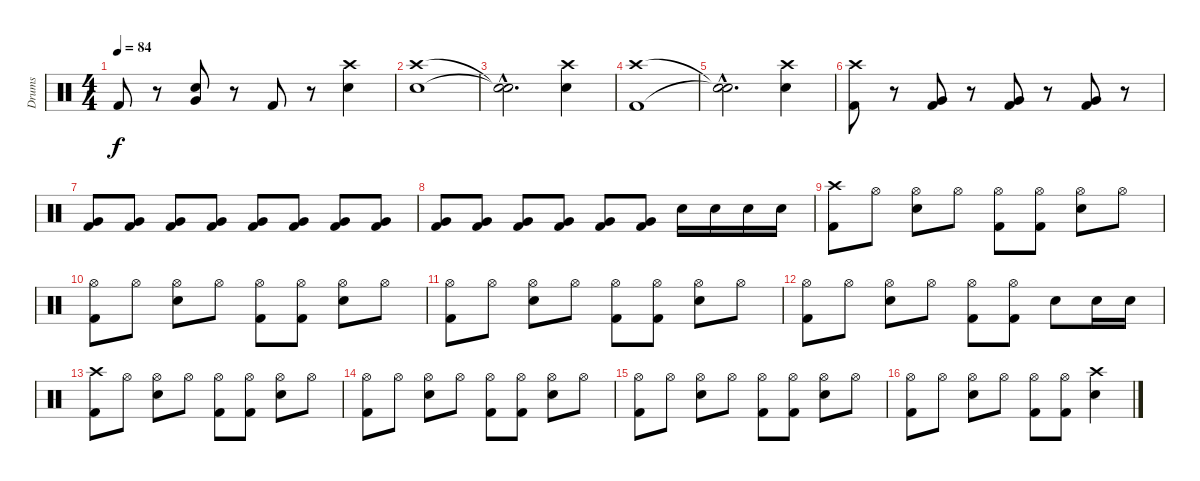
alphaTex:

\track ("Drums" "Drums") {instrument percussion}
\staff {score}
\articulation defaults
\ts (4 4)
\tempo 84
\clef neutral
\ks c "Kick (hit) 2".8{dy f}
r.8 ("Very Low Tom (hit)" "Snare (hit) 2").8 r.8 "Kick (hit) 2".8 r.8 ("Crash high (hit)" "Snare (hit) 2").4 |
("Crash high (hit)" "Snare (hit) 2").1 |
("Snare (hit)"{hac t} "Snare (hit)"{hac t}).2{d} ("Crash high (hit)" "Snare (hit) 2").4 |
("Crash high (hit)" "Kick (hit) 2").1 |
("Snare (hit)"{hac t} "Snare (hit)"{hac t}).2{d} ("Crash high (hit)" "Snare (hit) 2").4 |
("Crash high (hit)" "Kick (hit) 2").8 r.8 ("Very Low Tom (hit)" "Kick (hit) 2").8 r.8 ("Very Low Tom (hit)" "Kick (hit) 2").8 r.8 ("Very Low Tom (hit)" "Kick (hit) 2").8 r.8 |
("Very Low Tom (hit)" "Kick (hit) 2").8 ("Very Low Tom (hit)" "Kick (hit) 2").8 ("Very Low Tom (hit)" "Kick (hit) 2").8 ("Very Low Tom (hit)" "Kick (hit) 2").8 ("Very Low Tom (hit)" "Kick (hit) 2").8 ("Very Low Tom (hit)" "Kick (hit) 2").8 ("Very Low Tom (hit)" "Kick (hit) 2").8 ("Very Low Tom (hit)" "Kick (hit) 2").8 |
("Very Low Tom (hit)" "Kick (hit) 2").8 ("Very Low Tom (hit)" "Kick (hit) 2").8 ("Very Low Tom (hit)" "Kick (hit) 2").8 ("Very Low Tom (hit)" "Kick (hit) 2").8 ("Very Low Tom (hit)" "Kick (hit) 2").8 ("Very Low Tom (hit)" "Kick (hit) 2").8 "Snare (hit) 2".16 "Snare (hit) 2".16 "Snare (hit) 2".16 "Snare (hit) 2".16 |
("Crash high (hit)" "Kick (hit) 2").8 "Hi-Hat (open)".8 ("Hi-Hat (open)" "Snare (hit) 2").8 "Hi-Hat (open)".8 ("Hi-Hat (open)" "Kick (hit) 2").8 ("Hi-Hat (open)" "Kick (hit) 2").8 ("Hi-Hat (open)" "Snare (hit) 2").8 "Hi-Hat (open)".8 |
("Hi-Hat (open)" "Kick (hit) 2").8 "Hi-Hat (open)".8 ("Hi-Hat (open)" "Snare (hit) 2").8 "Hi-Hat (open)".8 ("Hi-Hat (open)" "Kick (hit) 2").8 ("Hi-Hat (open)" "Kick (hit) 2").8 ("Hi-Hat (open)" "Snare (hit) 2").8 "Hi-Hat (open)".8 |
("Hi-Hat (open)" "Kick (hit) 2").8 "Hi-Hat (open)".8 ("Hi-Hat (open)" "Snare (hit) 2").8 "Hi-Hat (open)".8 ("Hi-Hat (open)" "Kick (hit) 2").8 ("Hi-Hat (open)" "Kick (hit) 2").8 ("Hi-Hat (open)" "Snare (hit) 2").8 "Hi-Hat (open)".8 |
("Hi-Hat (open)" "Kick (hit) 2").8 "Hi-Hat (open)".8 ("Hi-Hat (open)" "Snare (hit) 2").8 "Hi-Hat (open)".8 ("Hi-Hat (open)" "Kick (hit) 2").8 ("Hi-Hat (open)" "Kick (hit) 2").8 "Snare (hit) 2".8 "Snare (hit) 2".16 "Snare (hit) 2".16 |
("Crash high (hit)" "Kick (hit) 2").8 "Hi-Hat (open)".8 ("Hi-Hat (open)" "Snare (hit) 2").8 "Hi-Hat (open)".8 ("Hi-Hat (open)" "Kick (hit) 2").8 ("Hi-Hat (open)" "Kick (hit) 2").8 ("Hi-Hat (open)" "Snare (hit) 2").8 "Hi-Hat (open)".8 |
("Hi-Hat (open)" "Kick (hit) 2").8 "Hi-Hat (open)".8 ("Hi-Hat (open)" "Snare (hit) 2").8 "Hi-Hat (open)".8 ("Hi-Hat (open)" "Kick (hit) 2").8 ("Hi-Hat (open)" "Kick (hit) 2").8 ("Hi-Hat (open)" "Snare (hit) 2").8 "Hi-Hat (open)".8 |
("Hi-Hat (open)" "Kick (hit) 2").8 "Hi-Hat (open)".8 ("Hi-Hat (open)" "Snare (hit) 2").8 "Hi-Hat (open)".8 ("Hi-Hat (open)" "Kick (hit) 2").8 ("Hi-Hat (open)" "Kick (hit) 2").8 ("Hi-Hat (open)" "Snare (hit) 2").8 "Hi-Hat (open)".8 |
("Hi-Hat (open)" "Kick (hit) 2").8 "Hi-Hat (open)".8 ("Hi-Hat (open)" "Snare (hit) 2").8 "Hi-Hat (open)".8 ("Hi-Hat (open)" "Kick (hit) 2").8 ("Hi-Hat (open)" "Kick (hit) 2").8 ("Crash high (hit)" "Snare (hit) 2").4
